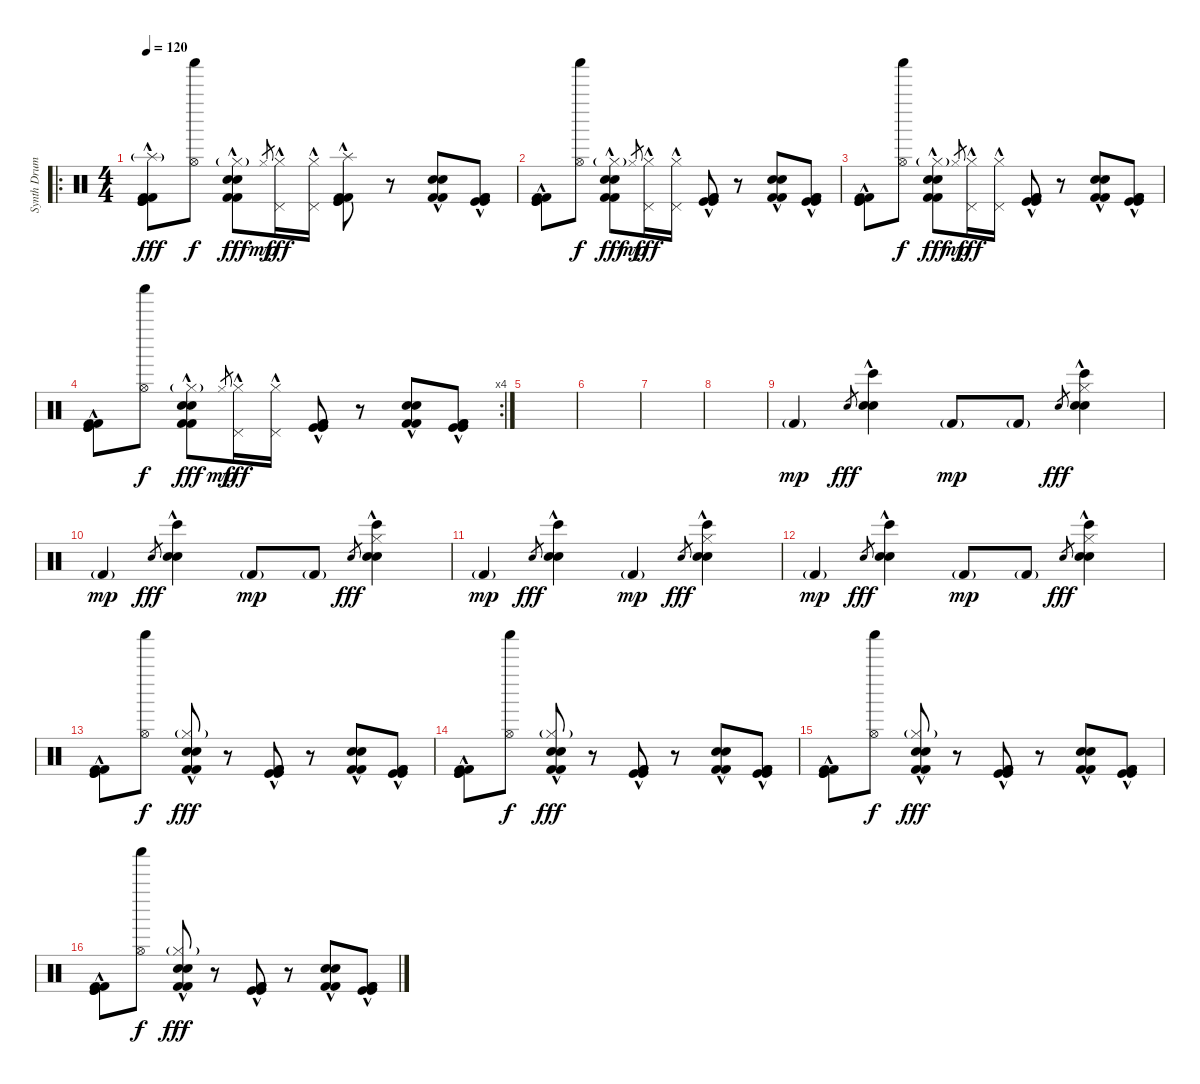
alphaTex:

\track ("Synth Drum" "Synth Drum") {instrument percussion}
\staff {score}
\articulation defaults
\ro
\ts (4 4)
\tempo 120
\clef neutral
\ks c
("Splash (hit)"{g} "Kick (hit)"{hac} "Kick (hit) 2"{hac} "Kick (hit)"{hac} "Kick (hit) 2"{hac}).8{dy fff} ("Shaker (hit)" "Hi-Hat (open)").8{dy f} ("Hi-Hat (closed)"{g} "Snare (hit) 2"{hac} "Electric Snare (hit)"{hac} "Kick (hit) 2"{hac} "Kick (hit) 2"{hac}).8{dy fff} "Hi-Hat (closed)"{h}.8{gr dy mp} ("Pedal Hi-Hat (hit)"{hac} "Hi-Hat (closed)"{hac}).16{dy fff} ("Pedal Hi-Hat (hit)"{hac} "Hi-Hat (closed)"{hac}).16 ("Splash (hit)" "Kick (hit)"{hac} "Kick (hit)"{hac} "Kick (hit) 2"{hac} "Kick (hit) 2"{hac}).8 r.8 ("Snare (hit) 2"{hac} "Electric Snare (hit)"{hac} "Kick (hit) 2"{hac} "Kick (hit) 2"{hac}).8 ("Kick (hit)"{hac} "Kick (hit)"{hac} "Kick (hit) 2"{hac} "Kick (hit) 2"{hac}).8 |
("Kick (hit)"{hac} "Kick (hit) 2"{hac} "Kick (hit)"{hac} "Kick (hit) 2"{hac}).8 ("Shaker (hit)" "Hi-Hat (open)").8{dy f} ("Hi-Hat (closed)"{g} "Snare (hit) 2"{hac} "Electric Snare (hit)"{hac} "Kick (hit) 2"{hac} "Kick (hit) 2"{hac}).8{dy fff} "Hi-Hat (closed)"{h}.8{gr dy mp} ("Pedal Hi-Hat (hit)"{hac} "Hi-Hat (closed)"{hac}).16{dy fff} ("Pedal Hi-Hat (hit)"{hac} "Hi-Hat (closed)"{hac}).16 ("Kick (hit)"{hac} "Kick (hit)"{hac} "Kick (hit) 2"{hac} "Kick (hit) 2"{hac}).8 r.8 ("Snare (hit) 2"{hac} "Electric Snare (hit)"{hac} "Kick (hit) 2"{hac} "Kick (hit) 2"{hac}).8 ("Kick (hit)"{hac} "Kick (hit)"{hac} "Kick (hit) 2"{hac} "Kick (hit) 2"{hac}).8 |
("Kick (hit)"{hac} "Kick (hit) 2"{hac} "Kick (hit)"{hac} "Kick (hit) 2"{hac}).8 ("Shaker (hit)" "Hi-Hat (open)").8{dy f} ("Hi-Hat (closed)"{g} "Snare (hit) 2"{hac} "Electric Snare (hit)"{hac} "Kick (hit) 2"{hac} "Kick (hit) 2"{hac}).8{dy fff} "Hi-Hat (closed)"{h}.8{gr dy mp} ("Pedal Hi-Hat (hit)"{hac} "Hi-Hat (closed)"{hac}).16{dy fff} ("Pedal Hi-Hat (hit)"{hac} "Hi-Hat (closed)"{hac}).16 ("Kick (hit)"{hac} "Kick (hit)"{hac} "Kick (hit) 2"{hac} "Kick (hit) 2"{hac}).8 r.8 ("Snare (hit) 2"{hac} "Electric Snare (hit)"{hac} "Kick (hit) 2"{hac} "Kick (hit) 2"{hac}).8 ("Kick (hit)"{hac} "Kick (hit)"{hac} "Kick (hit) 2"{hac} "Kick (hit) 2"{hac}).8 |
\rc 4
("Kick (hit)"{hac} "Kick (hit) 2"{hac} "Kick (hit)"{hac} "Kick (hit) 2"{hac}).8 ("Shaker (hit)" "Hi-Hat (open)").8{dy f} ("Hi-Hat (closed)"{g} "Snare (hit) 2"{hac} "Electric Snare (hit)"{hac} "Kick (hit) 2"{hac} "Kick (hit) 2"{hac}).8{dy fff} "Hi-Hat (closed)"{h}.8{gr dy mp} ("Pedal Hi-Hat (hit)"{hac} "Hi-Hat (closed)"{hac}).16{dy fff} ("Pedal Hi-Hat (hit)"{hac} "Hi-Hat (closed)"{hac}).16 ("Kick (hit)"{hac} "Kick (hit)"{hac} "Kick (hit) 2"{hac} "Kick (hit) 2"{hac}).8 r.8 ("Snare (hit) 2"{hac} "Electric Snare (hit)"{hac} "Kick (hit) 2"{hac} "Kick (hit) 2"{hac}).8 ("Kick (hit)"{hac} "Kick (hit)"{hac} "Kick (hit) 2"{hac} "Kick (hit) 2"{hac}).8 |
|
|
|
|
"Kick (hit) 2"{g}.4{dy mp} "Snare (hit)".8{gr dy fff} ("Electric Snare (hit)"{hac} "Bongo High (hit)"{hac} "Hand Clap (hit)"{hac}).4 "Kick (hit) 2"{g}.8{dy mp} "Kick (hit) 2"{g}.8 "Snare (hit)".8{gr dy fff} ("Hi-Hat (closed)" "Electric Snare (hit)"{hac} "Bongo High (hit)"{hac} "Hand Clap (hit)"{hac}).4 |
"Kick (hit) 2"{g}.4{dy mp} "Snare (hit)".8{gr dy fff} ("Electric Snare (hit)"{hac} "Bongo High (hit)"{hac} "Hand Clap (hit)"{hac}).4 "Kick (hit) 2"{g}.8{dy mp} "Kick (hit) 2"{g}.8 "Snare (hit)".8{gr dy fff} ("Hi-Hat (closed)" "Electric Snare (hit)"{hac} "Bongo High (hit)"{hac} "Hand Clap (hit)"{hac}).4 |
"Kick (hit) 2"{g}.4{dy mp} "Snare (hit)".8{gr dy fff} ("Electric Snare (hit)"{hac} "Bongo High (hit)"{hac} "Hand Clap (hit)"{hac}).4 "Kick (hit) 2"{g}.4{dy mp} "Snare (hit)".8{gr dy fff} ("Hi-Hat (closed)" "Electric Snare (hit)"{hac} "Bongo High (hit)"{hac} "Hand Clap (hit)"{hac}).4 |
"Kick (hit) 2"{g}.4{dy mp} "Snare (hit)".8{gr dy fff} ("Electric Snare (hit)"{hac} "Bongo High (hit)"{hac} "Hand Clap (hit)"{hac}).4 "Kick (hit) 2"{g}.8{dy mp} "Kick (hit) 2"{g}.8 "Snare (hit)".8{gr dy fff} ("Hi-Hat (closed)" "Electric Snare (hit)"{hac} "Bongo High (hit)"{hac} "Hand Clap (hit)"{hac}).4 |
("Kick (hit)"{hac} "Kick (hit) 2"{hac} "Kick (hit)"{hac} "Kick (hit) 2"{hac}).8 ("Shaker (hit)" "Hi-Hat (open)").8{dy f} ("Hi-Hat (closed)"{g} "Snare (hit) 2"{hac} "Electric Snare (hit)"{hac} "Kick (hit) 2"{hac} "Kick (hit) 2"{hac}).8{dy fff} r.8 ("Kick (hit)"{hac} "Kick (hit)"{hac} "Kick (hit) 2"{hac} "Kick (hit) 2"{hac}).8 r.8 ("Snare (hit) 2"{hac} "Electric Snare (hit)"{hac} "Kick (hit) 2"{hac} "Kick (hit) 2"{hac}).8 ("Kick (hit)"{hac} "Kick (hit)"{hac} "Kick (hit) 2"{hac} "Kick (hit) 2"{hac}).8 |
("Kick (hit)"{hac} "Kick (hit) 2"{hac} "Kick (hit)"{hac} "Kick (hit) 2"{hac}).8 ("Shaker (hit)" "Hi-Hat (open)").8{dy f} ("Hi-Hat (closed)"{g} "Snare (hit) 2"{hac} "Electric Snare (hit)"{hac} "Kick (hit) 2"{hac} "Kick (hit) 2"{hac}).8{dy fff} r.8 ("Kick (hit)"{hac} "Kick (hit)"{hac} "Kick (hit) 2"{hac} "Kick (hit) 2"{hac}).8 r.8 ("Snare (hit) 2"{hac} "Electric Snare (hit)"{hac} "Kick (hit) 2"{hac} "Kick (hit) 2"{hac}).8 ("Kick (hit)"{hac} "Kick (hit)"{hac} "Kick (hit) 2"{hac} "Kick (hit) 2"{hac}).8 |
("Kick (hit)"{hac} "Kick (hit) 2"{hac} "Kick (hit)"{hac} "Kick (hit) 2"{hac}).8 ("Shaker (hit)" "Hi-Hat (open)").8{dy f} ("Hi-Hat (closed)"{g} "Snare (hit) 2"{hac} "Electric Snare (hit)"{hac} "Kick (hit) 2"{hac} "Kick (hit) 2"{hac}).8{dy fff} r.8 ("Kick (hit)"{hac} "Kick (hit)"{hac} "Kick (hit) 2"{hac} "Kick (hit) 2"{hac}).8 r.8 ("Snare (hit) 2"{hac} "Electric Snare (hit)"{hac} "Kick (hit) 2"{hac} "Kick (hit) 2"{hac}).8 ("Kick (hit)"{hac} "Kick (hit)"{hac} "Kick (hit) 2"{hac} "Kick (hit) 2"{hac}).8 |
("Kick (hit)"{hac} "Kick (hit) 2"{hac} "Kick (hit)"{hac} "Kick (hit) 2"{hac}).8 ("Shaker (hit)" "Hi-Hat (open)").8{dy f} ("Hi-Hat (closed)"{g} "Snare (hit) 2"{hac} "Electric Snare (hit)"{hac} "Kick (hit) 2"{hac} "Kick (hit) 2"{hac}).8{dy fff} r.8 ("Kick (hit)"{hac} "Kick (hit)"{hac} "Kick (hit) 2"{hac} "Kick (hit) 2"{hac}).8 r.8 ("Snare (hit) 2"{hac} "Electric Snare (hit)"{hac} "Kick (hit) 2"{hac} "Kick (hit) 2"{hac}).8 ("Kick (hit)"{hac} "Kick (hit)"{hac} "Kick (hit) 2"{hac} "Kick (hit) 2"{hac}).8
